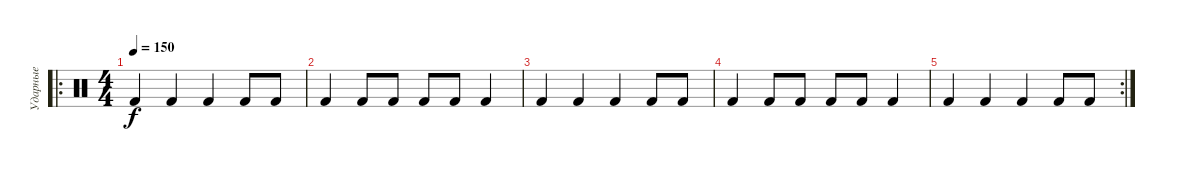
\track ("Ударные" "Ударные") {instrument percussion}
\staff {score}
\articulation defaults
\ro
\ts (4 4)
\tempo 150
\clef neutral
\ks c "Kick (hit) 2".4{dy f} "Kick (hit) 2".4 "Kick (hit) 2".4 "Kick (hit) 2".8 "Kick (hit) 2".8
|
"Kick (hit) 2".4 "Kick (hit) 2".8 "Kick (hit) 2".8 "Kick (hit) 2".8 "Kick (hit) 2".8 "Kick (hit) 2".4 |
"Kick (hit) 2".4 "Kick (hit) 2".4 "Kick (hit) 2".4 "Kick (hit) 2".8 "Kick (hit) 2".8 |
"Kick (hit) 2".4 "Kick (hit) 2".8 "Kick (hit) 2".8 "Kick (hit) 2".8 "Kick (hit) 2".8 "Kick (hit) 2".4 |
\rc 2 "Kick (hit) 2".4 "Kick (hit) 2".4 "Kick (hit) 2".4 "Kick (hit) 2".8 "Kick (hit) 2".8
